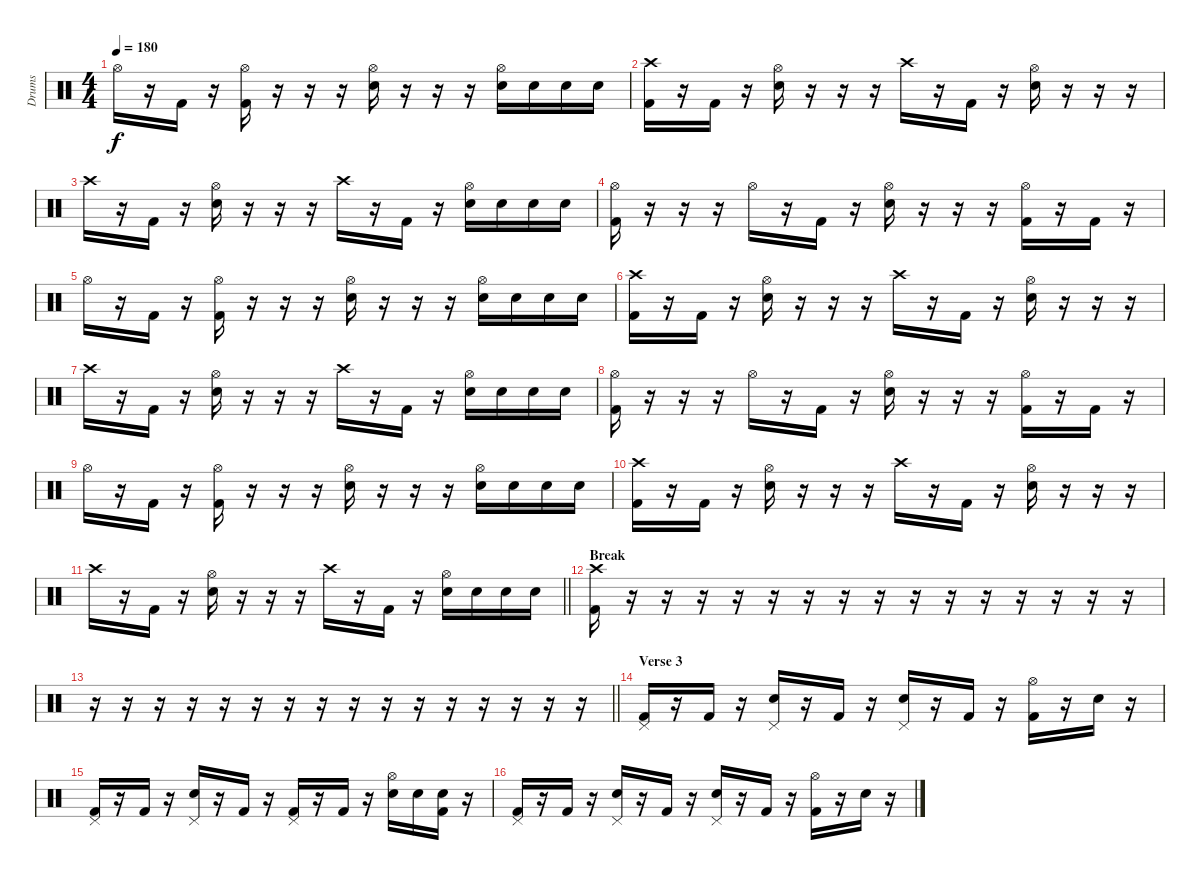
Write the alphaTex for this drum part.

\track ("Drums" "Drums") {instrument percussion}
\staff {score}
\articulation defaults
\ts (4 4)
\tempo 180
\clef neutral
\ks c "Hi-Hat (open)".16{dy f}
r.16 "Kick (hit) 2".16 r.16 ("Hi-Hat (open)" "Kick (hit) 2").16 r.16 r.16 r.16 ("Hi-Hat (open)" "Electric Snare (hit)").16 r.16 r.16 r.16 ("Hi-Hat (open)" "Electric Snare (hit)").16 "Electric Snare (hit)".16 "Electric Snare (hit)".16 "Electric Snare (hit)".16 |
("Crash high (hit)" "Kick (hit) 2").16 r.16 "Kick (hit) 2".16 r.16 ("Hi-Hat (open)" "Electric Snare (hit)").16 r.16 r.16 r.16 "Crash high (hit)".16 r.16 "Kick (hit) 2".16 r.16 ("Hi-Hat (open)" "Electric Snare (hit)").16 r.16 r.16 r.16 |
"Crash high (hit)".16 r.16 "Kick (hit) 2".16 r.16 ("Hi-Hat (open)" "Electric Snare (hit)").16 r.16 r.16 r.16 "Crash high (hit)".16 r.16 "Kick (hit) 2".16 r.16 ("Hi-Hat (open)" "Electric Snare (hit)").16 "Electric Snare (hit)".16 "Electric Snare (hit)".16 "Electric Snare (hit)".16 |
("Hi-Hat (open)" "Kick (hit) 2").16 r.16 r.16 r.16 "Hi-Hat (open)".16 r.16 "Kick (hit) 2".16 r.16 ("Hi-Hat (open)" "Electric Snare (hit)").16 r.16 r.16 r.16 ("Hi-Hat (open)" "Kick (hit) 2").16 r.16 "Kick (hit) 2".16 r.16 |
"Hi-Hat (open)".16 r.16 "Kick (hit) 2".16 r.16 ("Hi-Hat (open)" "Kick (hit) 2").16 r.16 r.16 r.16 ("Hi-Hat (open)" "Electric Snare (hit)").16 r.16 r.16 r.16 ("Hi-Hat (open)" "Electric Snare (hit)").16 "Electric Snare (hit)".16 "Electric Snare (hit)".16 "Electric Snare (hit)".16 |
("Crash high (hit)" "Kick (hit) 2").16 r.16 "Kick (hit) 2".16 r.16 ("Hi-Hat (open)" "Electric Snare (hit)").16 r.16 r.16 r.16 "Crash high (hit)".16 r.16 "Kick (hit) 2".16 r.16 ("Hi-Hat (open)" "Electric Snare (hit)").16 r.16 r.16 r.16 |
"Crash high (hit)".16 r.16 "Kick (hit) 2".16 r.16 ("Hi-Hat (open)" "Electric Snare (hit)").16 r.16 r.16 r.16 "Crash high (hit)".16 r.16 "Kick (hit) 2".16 r.16 ("Hi-Hat (open)" "Electric Snare (hit)").16 "Electric Snare (hit)".16 "Electric Snare (hit)".16 "Electric Snare (hit)".16 |
("Hi-Hat (open)" "Kick (hit) 2").16 r.16 r.16 r.16 "Hi-Hat (open)".16 r.16 "Kick (hit) 2".16 r.16 ("Hi-Hat (open)" "Electric Snare (hit)").16 r.16 r.16 r.16 ("Hi-Hat (open)" "Kick (hit) 2").16 r.16 "Kick (hit) 2".16 r.16 |
"Hi-Hat (open)".16 r.16 "Kick (hit) 2".16 r.16 ("Hi-Hat (open)" "Kick (hit) 2").16 r.16 r.16 r.16 ("Hi-Hat (open)" "Electric Snare (hit)").16 r.16 r.16 r.16 ("Hi-Hat (open)" "Electric Snare (hit)").16 "Electric Snare (hit)".16 "Electric Snare (hit)".16 "Electric Snare (hit)".16 |
("Crash high (hit)" "Kick (hit) 2").16 r.16 "Kick (hit) 2".16 r.16 ("Hi-Hat (open)" "Electric Snare (hit)").16 r.16 r.16 r.16 "Crash high (hit)".16 r.16 "Kick (hit) 2".16 r.16 ("Hi-Hat (open)" "Electric Snare (hit)").16 r.16 r.16 r.16 |
\barLineRight lightlight "Crash high (hit)".16
r.16 "Kick (hit) 2".16 r.16 ("Hi-Hat (open)" "Electric Snare (hit)").16 r.16 r.16 r.16 "Crash high (hit)".16 r.16 "Kick (hit) 2".16 r.16 ("Hi-Hat (open)" "Electric Snare (hit)").16 "Electric Snare (hit)".16 "Electric Snare (hit)".16 "Electric Snare (hit)".16 |
\section ("" "Break")
("Crash high (hit)" "Kick (hit) 2").16 r.16 r.16 r.16 r.16 r.16 r.16 r.16 r.16 r.16 r.16 r.16 r.16 r.16 r.16 r.16 |
\barLineRight lightlight
r.16 r.16 r.16 r.16 r.16 r.16 r.16 r.16 r.16 r.16 r.16 r.16 r.16 r.16 r.16 r.16 |
\section ("" "Verse 3")
("Pedal Hi-Hat (hit)" "Kick (hit) 2").16 r.16 "Kick (hit) 2".16 r.16 ("Pedal Hi-Hat (hit)" "Electric Snare (hit)").16 r.16 "Kick (hit) 2".16 r.16 ("Pedal Hi-Hat (hit)" "Electric Snare (hit)").16 r.16 "Kick (hit) 2".16 r.16 ("Hi-Hat (open)" "Kick (hit) 2").16 r.16 "Electric Snare (hit)".16 r.16 |
("Pedal Hi-Hat (hit)" "Kick (hit) 2").16 r.16 "Kick (hit) 2".16 r.16 ("Pedal Hi-Hat (hit)" "Electric Snare (hit)").16 r.16 "Kick (hit) 2".16 r.16 ("Pedal Hi-Hat (hit)" "Kick (hit) 2").16 r.16 "Kick (hit) 2".16 r.16 ("Hi-Hat (open)" "Electric Snare (hit)").16 "Electric Snare (hit)".16 ("Electric Snare (hit)" "Kick (hit) 2").16 r.16 |
("Pedal Hi-Hat (hit)" "Kick (hit) 2").16 r.16 "Kick (hit) 2".16 r.16 ("Pedal Hi-Hat (hit)" "Electric Snare (hit)").16 r.16 "Kick (hit) 2".16 r.16 ("Pedal Hi-Hat (hit)" "Electric Snare (hit)").16 r.16 "Kick (hit) 2".16 r.16 ("Hi-Hat (open)" "Kick (hit) 2").16 r.16 "Electric Snare (hit)".16 r.16
